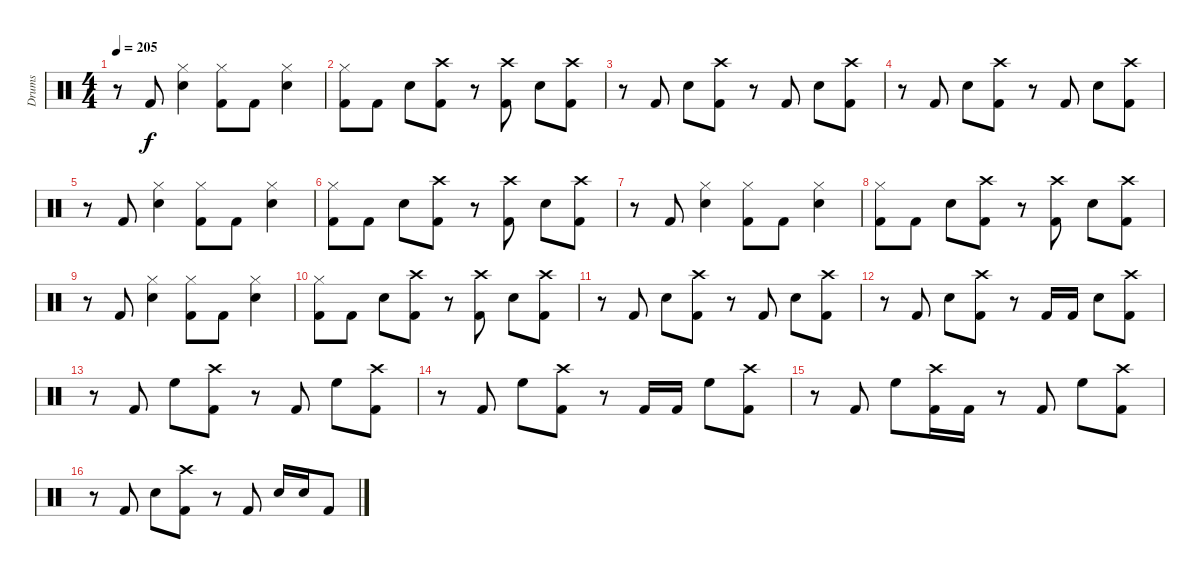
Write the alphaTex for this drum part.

\track ("Drums" "Drums") {instrument percussion}
\staff {score}
\articulation defaults
\ts (4 4)
\tempo 205
\clef neutral
\ks c
r.8{dy f} "Kick (hit) 2".8 ("Snare (hit) 2" "Hi-Hat (closed)").4 ("Kick (hit) 2" "Hi-Hat (closed)").8 "Kick (hit) 2".8 ("Hi-Hat (closed)" "Snare (hit) 2").4 |
("Hi-Hat (closed)" "Kick (hit) 2").8 "Kick (hit) 2".8 "Snare (hit) 2".8 ("Kick (hit) 2" "Crash high (hit)").8 r.8 ("Kick (hit) 2" "Crash high (hit)").8 "Snare (hit) 2".8 ("Kick (hit) 2" "Crash high (hit)").8 |
r.8 "Kick (hit) 2".8 "Snare (hit) 2".8 ("Kick (hit) 2" "Crash high (hit)").8 r.8 "Kick (hit) 2".8 "Snare (hit) 2".8 ("Kick (hit) 2" "Crash high (hit)").8 |
r.8 "Kick (hit) 2".8 "Snare (hit) 2".8 ("Kick (hit) 2" "Crash high (hit)").8 r.8 "Kick (hit) 2".8 "Snare (hit) 2".8 ("Kick (hit) 2" "Crash high (hit)").8 |
r.8 "Kick (hit) 2".8 ("Snare (hit) 2" "Hi-Hat (closed)").4 ("Kick (hit) 2" "Hi-Hat (closed)").8 "Kick (hit) 2".8 ("Hi-Hat (closed)" "Snare (hit) 2").4 |
("Hi-Hat (closed)" "Kick (hit) 2").8 "Kick (hit) 2".8 "Snare (hit) 2".8 ("Kick (hit) 2" "Crash high (hit)").8 r.8 ("Kick (hit) 2" "Crash high (hit)").8 "Snare (hit) 2".8 ("Kick (hit) 2" "Crash high (hit)").8 |
r.8 "Kick (hit) 2".8 ("Snare (hit) 2" "Hi-Hat (closed)").4 ("Kick (hit) 2" "Hi-Hat (closed)").8 "Kick (hit) 2".8 ("Hi-Hat (closed)" "Snare (hit) 2").4 |
("Hi-Hat (closed)" "Kick (hit) 2").8 "Kick (hit) 2".8 "Snare (hit) 2".8 ("Kick (hit) 2" "Crash high (hit)").8 r.8 ("Kick (hit) 2" "Crash high (hit)").8 "Snare (hit) 2".8 ("Kick (hit) 2" "Crash high (hit)").8 |
r.8 "Kick (hit) 2".8 ("Snare (hit) 2" "Hi-Hat (closed)").4 ("Kick (hit) 2" "Hi-Hat (closed)").8 "Kick (hit) 2".8 ("Hi-Hat (closed)" "Snare (hit) 2").4 |
("Hi-Hat (closed)" "Kick (hit) 2").8 "Kick (hit) 2".8 "Snare (hit) 2".8 ("Kick (hit) 2" "Crash high (hit)").8 r.8 ("Kick (hit) 2" "Crash high (hit)").8 "Snare (hit) 2".8 ("Kick (hit) 2" "Crash high (hit)").8 |
r.8 "Kick (hit) 2".8 "Snare (hit) 2".8 ("Kick (hit) 2" "Crash high (hit)").8 r.8 "Kick (hit) 2".8 "Snare (hit) 2".8 ("Kick (hit) 2" "Crash high (hit)").8 |
r.8 "Kick (hit) 2".8 "Snare (hit) 2".8 ("Kick (hit) 2" "Crash high (hit)").8 r.8 "Kick (hit) 2".16 "Kick (hit) 2".16 "Snare (hit) 2".8 ("Crash high (hit)" "Kick (hit) 2").8 |
r.8 "Kick (hit) 2".8 "High Floor Tom (hit)".8 ("Kick (hit) 2" "Crash high (hit)").8 r.8 "Kick (hit) 2".8 "High Floor Tom (hit)".8 ("Kick (hit) 2" "Crash high (hit)").8 |
r.8 "Kick (hit) 2".8 "High Floor Tom (hit)".8 ("Kick (hit) 2" "Crash high (hit)").8 r.8 "Kick (hit) 2".16 "Kick (hit) 2".16 "High Floor Tom (hit)".8 ("Crash high (hit)" "Kick (hit) 2").8 |
r.8 "Kick (hit) 2".8 "High Floor Tom (hit)".8 ("Crash high (hit)" "Kick (hit) 2").16 "Kick (hit) 2".16 r.8 "Kick (hit) 2".8 "High Floor Tom (hit)".8 ("Crash high (hit)" "Kick (hit) 2").8 |
r.8 "Kick (hit) 2".8 "Snare (hit) 2".8 ("Kick (hit) 2" "Crash high (hit)").8 r.8 "Kick (hit) 2".8 "Snare (hit) 2".16 "Snare (hit) 2".16 "Kick (hit) 2".8
